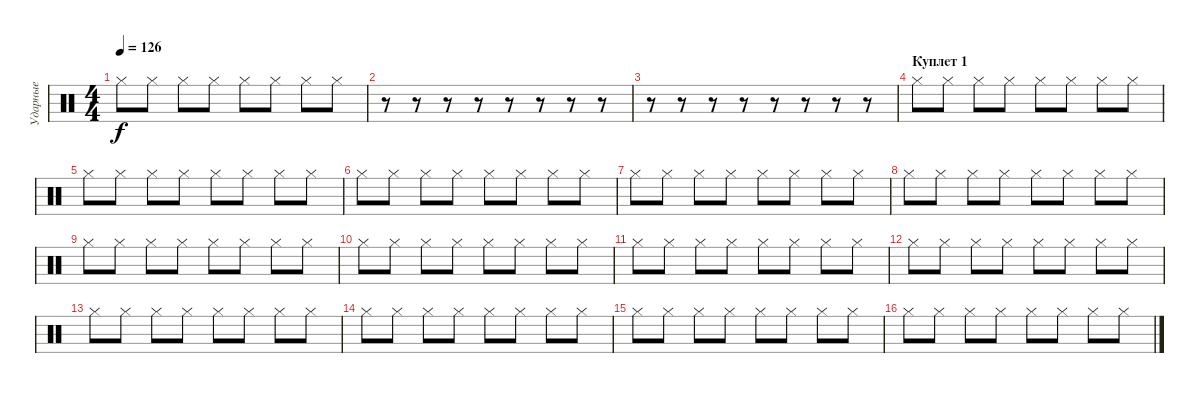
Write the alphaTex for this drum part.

\track ("Ударные" "Ударные") {instrument percussion}
\staff {score}
\articulation defaults
\ts (4 4)
\tempo 126
\clef neutral
\ks c "Hi-Hat (closed)".8{dy f} "Hi-Hat (closed)".8 "Hi-Hat (closed)".8 "Hi-Hat (closed)".8 "Hi-Hat (closed)".8 "Hi-Hat (closed)".8 "Hi-Hat (closed)".8 "Hi-Hat (closed)".8
|
r.8 r.8 r.8 r.8 r.8 r.8 r.8 r.8 |
r.8 r.8 r.8 r.8 r.8 r.8 r.8 r.8 |
\section ("" "Куплет 1")
"Hi-Hat (closed)".8 "Hi-Hat (closed)".8 "Hi-Hat (closed)".8 "Hi-Hat (closed)".8 "Hi-Hat (closed)".8 "Hi-Hat (closed)".8 "Hi-Hat (closed)".8 "Hi-Hat (closed)".8 |
"Hi-Hat (closed)".8 "Hi-Hat (closed)".8 "Hi-Hat (closed)".8 "Hi-Hat (closed)".8 "Hi-Hat (closed)".8 "Hi-Hat (closed)".8 "Hi-Hat (closed)".8 "Hi-Hat (closed)".8 |
"Hi-Hat (closed)".8 "Hi-Hat (closed)".8 "Hi-Hat (closed)".8 "Hi-Hat (closed)".8 "Hi-Hat (closed)".8 "Hi-Hat (closed)".8 "Hi-Hat (closed)".8 "Hi-Hat (closed)".8 |
"Hi-Hat (closed)".8 "Hi-Hat (closed)".8 "Hi-Hat (closed)".8 "Hi-Hat (closed)".8 "Hi-Hat (closed)".8 "Hi-Hat (closed)".8 "Hi-Hat (closed)".8 "Hi-Hat (closed)".8 |
"Hi-Hat (closed)".8 "Hi-Hat (closed)".8 "Hi-Hat (closed)".8 "Hi-Hat (closed)".8 "Hi-Hat (closed)".8 "Hi-Hat (closed)".8 "Hi-Hat (closed)".8 "Hi-Hat (closed)".8 |
"Hi-Hat (closed)".8 "Hi-Hat (closed)".8 "Hi-Hat (closed)".8 "Hi-Hat (closed)".8 "Hi-Hat (closed)".8 "Hi-Hat (closed)".8 "Hi-Hat (closed)".8 "Hi-Hat (closed)".8 |
"Hi-Hat (closed)".8 "Hi-Hat (closed)".8 "Hi-Hat (closed)".8 "Hi-Hat (closed)".8 "Hi-Hat (closed)".8 "Hi-Hat (closed)".8 "Hi-Hat (closed)".8 "Hi-Hat (closed)".8 |
"Hi-Hat (closed)".8 "Hi-Hat (closed)".8 "Hi-Hat (closed)".8 "Hi-Hat (closed)".8 "Hi-Hat (closed)".8 "Hi-Hat (closed)".8 "Hi-Hat (closed)".8 "Hi-Hat (closed)".8 |
"Hi-Hat (closed)".8 "Hi-Hat (closed)".8 "Hi-Hat (closed)".8 "Hi-Hat (closed)".8 "Hi-Hat (closed)".8 "Hi-Hat (closed)".8 "Hi-Hat (closed)".8 "Hi-Hat (closed)".8 |
"Hi-Hat (closed)".8 "Hi-Hat (closed)".8 "Hi-Hat (closed)".8 "Hi-Hat (closed)".8 "Hi-Hat (closed)".8 "Hi-Hat (closed)".8 "Hi-Hat (closed)".8 "Hi-Hat (closed)".8 |
"Hi-Hat (closed)".8 "Hi-Hat (closed)".8 "Hi-Hat (closed)".8 "Hi-Hat (closed)".8 "Hi-Hat (closed)".8 "Hi-Hat (closed)".8 "Hi-Hat (closed)".8 "Hi-Hat (closed)".8 |
"Hi-Hat (closed)".8 "Hi-Hat (closed)".8 "Hi-Hat (closed)".8 "Hi-Hat (closed)".8 "Hi-Hat (closed)".8 "Hi-Hat (closed)".8 "Hi-Hat (closed)".8 "Hi-Hat (closed)".8 |
"Hi-Hat (closed)".8 "Hi-Hat (closed)".8 "Hi-Hat (closed)".8 "Hi-Hat (closed)".8 "Hi-Hat (closed)".8 "Hi-Hat (closed)".8 "Hi-Hat (closed)".8 "Hi-Hat (closed)".8
